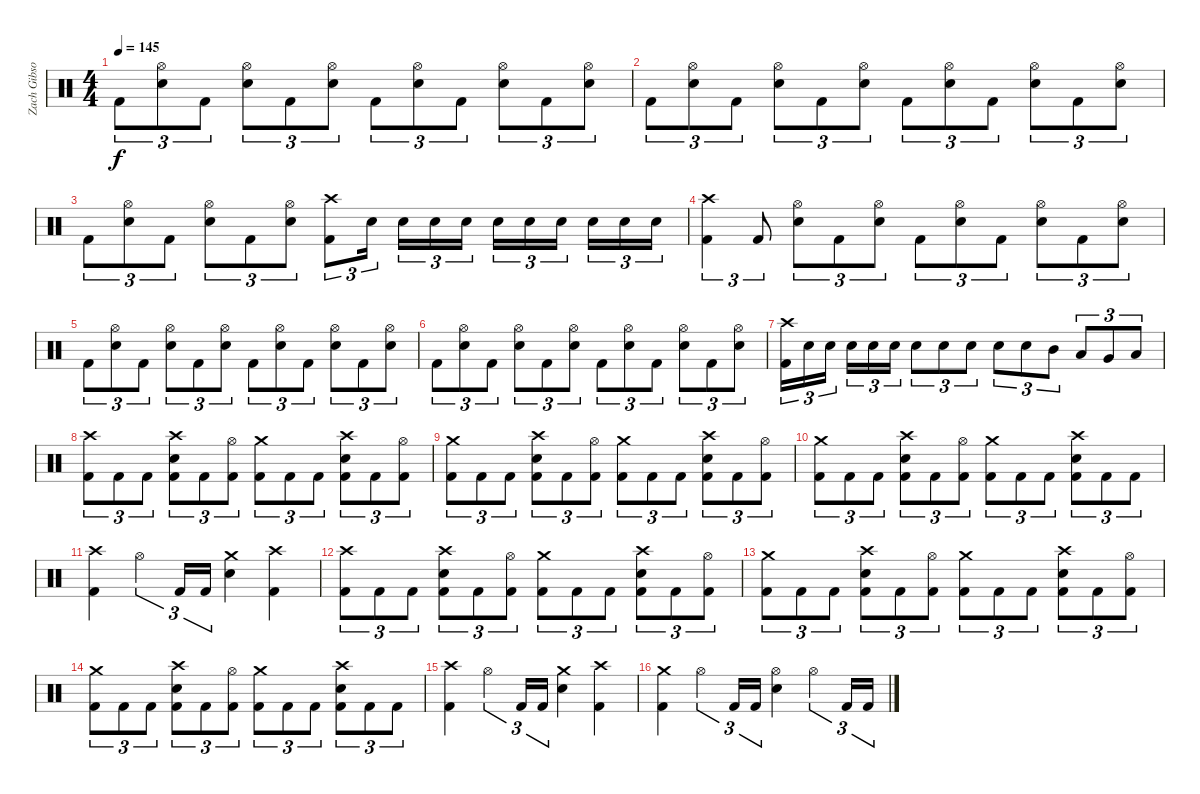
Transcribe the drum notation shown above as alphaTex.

\track ("Zach Gibson (Drums)" "Zach Gibso") {instrument percussion}
\staff {score}
\articulation defaults
\ts (4 4)
\tempo 145
\clef neutral
\ks c "Kick (hit) 2".8{tu (3 2) dy f}
("Hi-Hat (open)" "Snare (hit) 2").8{tu (3 2)} "Kick (hit) 2".8{tu (3 2)} ("Hi-Hat (open)" "Snare (hit) 2").8{tu (3 2)} "Kick (hit) 2".8{tu (3 2)} ("Hi-Hat (open)" "Snare (hit) 2").8{tu (3 2)} "Kick (hit) 2".8{tu (3 2)} ("Hi-Hat (open)" "Snare (hit) 2").8{tu (3 2)} "Kick (hit) 2".8{tu (3 2)} ("Hi-Hat (open)" "Snare (hit) 2").8{tu (3 2)} "Kick (hit) 2".8{tu (3 2)} ("Hi-Hat (open)" "Snare (hit) 2").8{tu (3 2)} |
"Kick (hit) 2".8{tu (3 2)} ("Hi-Hat (open)" "Snare (hit) 2").8{tu (3 2)} "Kick (hit) 2".8{tu (3 2)} ("Hi-Hat (open)" "Snare (hit) 2").8{tu (3 2)} "Kick (hit) 2".8{tu (3 2)} ("Hi-Hat (open)" "Snare (hit) 2").8{tu (3 2)} "Kick (hit) 2".8{tu (3 2)} ("Hi-Hat (open)" "Snare (hit) 2").8{tu (3 2)} "Kick (hit) 2".8{tu (3 2)} ("Hi-Hat (open)" "Snare (hit) 2").8{tu (3 2)} "Kick (hit) 2".8{tu (3 2)} ("Hi-Hat (open)" "Snare (hit) 2").8{tu (3 2)} |
"Kick (hit) 2".8{tu (3 2)} ("Hi-Hat (open)" "Snare (hit) 2").8{tu (3 2)} "Kick (hit) 2".8{tu (3 2)} ("Hi-Hat (open)" "Snare (hit) 2").8{tu (3 2)} "Kick (hit) 2".8{tu (3 2)} ("Hi-Hat (open)" "Snare (hit) 2").8{tu (3 2)} ("Crash high (hit)" "Kick (hit) 2").8{tu (3 2)} "Snare (hit) 2".16{tu (3 2)} "Snare (hit) 2".16{tu (3 2)} "Snare (hit) 2".16{tu (3 2)} "Snare (hit) 2".16{tu (3 2)} "Snare (hit) 2".16{tu (3 2)} "Snare (hit) 2".16{tu (3 2)} "Snare (hit) 2".16{tu (3 2)} "Snare (hit) 2".16{tu (3 2)} "Snare (hit) 2".16{tu (3 2)} "Snare (hit) 2".16{tu (3 2)} |
("Crash high (hit)" "Kick (hit) 2").4{tu (3 2)} "Kick (hit) 2".8{tu (3 2)} ("Hi-Hat (open)" "Snare (hit) 2").8{tu (3 2)} "Kick (hit) 2".8{tu (3 2)} ("Hi-Hat (open)" "Snare (hit) 2").8{tu (3 2)} "Kick (hit) 2".8{tu (3 2)} ("Hi-Hat (open)" "Snare (hit) 2").8{tu (3 2)} "Kick (hit) 2".8{tu (3 2)} ("Hi-Hat (open)" "Snare (hit) 2").8{tu (3 2)} "Kick (hit) 2".8{tu (3 2)} ("Hi-Hat (open)" "Snare (hit) 2").8{tu (3 2)} |
"Kick (hit) 2".8{tu (3 2)} ("Hi-Hat (open)" "Snare (hit) 2").8{tu (3 2)} "Kick (hit) 2".8{tu (3 2)} ("Hi-Hat (open)" "Snare (hit) 2").8{tu (3 2)} "Kick (hit) 2".8{tu (3 2)} ("Hi-Hat (open)" "Snare (hit) 2").8{tu (3 2)} "Kick (hit) 2".8{tu (3 2)} ("Hi-Hat (open)" "Snare (hit) 2").8{tu (3 2)} "Kick (hit) 2".8{tu (3 2)} ("Hi-Hat (open)" "Snare (hit) 2").8{tu (3 2)} "Kick (hit) 2".8{tu (3 2)} ("Hi-Hat (open)" "Snare (hit) 2").8{tu (3 2)} |
"Kick (hit) 2".8{tu (3 2)} ("Hi-Hat (open)" "Snare (hit) 2").8{tu (3 2)} "Kick (hit) 2".8{tu (3 2)} ("Hi-Hat (open)" "Snare (hit) 2").8{tu (3 2)} "Kick (hit) 2".8{tu (3 2)} ("Hi-Hat (open)" "Snare (hit) 2").8{tu (3 2)} "Kick (hit) 2".8{tu (3 2)} ("Hi-Hat (open)" "Snare (hit) 2").8{tu (3 2)} "Kick (hit) 2".8{tu (3 2)} ("Hi-Hat (open)" "Snare (hit) 2").8{tu (3 2)} "Kick (hit) 2".8{tu (3 2)} ("Hi-Hat (open)" "Snare (hit) 2").8{tu (3 2)} |
("Crash high (hit)" "Kick (hit) 2").16{tu (3 2)} "Snare (hit) 2".16{tu (3 2)} "Snare (hit) 2".16{tu (3 2)} "Snare (hit) 2".16{tu (3 2)} "Snare (hit) 2".16{tu (3 2)} "Snare (hit) 2".16{tu (3 2)} "Snare (hit) 2".8{tu (3 2)} "Snare (hit) 2".8{tu (3 2)} "Snare (hit) 2".8{tu (3 2)} "Snare (hit) 2".8{tu (3 2)} "Snare (hit) 2".8{tu (3 2)} "Mid Tom (hit)".8{tu (3 2)} "Low Tom (hit)".8{tu (3 2)} "Very Low Tom (hit)".8{tu (3 2)} "Low Floor Tom (hit)".8{tu (3 2)} |
("Crash high (hit)" "Kick (hit) 2").8{tu (3 2)} "Kick (hit) 2".8{tu (3 2)} "Kick (hit) 2".8{tu (3 2)} ("Crash high (hit)" "Snare (hit) 2" "Kick (hit) 2").8{tu (3 2)} "Kick (hit) 2".8{tu (3 2)} ("Hi-Hat (open)" "Kick (hit) 2").8{tu (3 2)} ("Crash medium (hit)" "Kick (hit) 2").8{tu (3 2)} "Kick (hit) 2".8{tu (3 2)} "Kick (hit) 2".8{tu (3 2)} ("Crash high (hit)" "Snare (hit) 2" "Kick (hit) 2").8{tu (3 2)} "Kick (hit) 2".8{tu (3 2)} ("Hi-Hat (open)" "Kick (hit) 2").8{tu (3 2)} |
("Crash medium (hit)" "Kick (hit) 2").8{tu (3 2)} "Kick (hit) 2".8{tu (3 2)} "Kick (hit) 2".8{tu (3 2)} ("Crash high (hit)" "Snare (hit) 2" "Kick (hit) 2").8{tu (3 2)} "Kick (hit) 2".8{tu (3 2)} ("Hi-Hat (open)" "Kick (hit) 2").8{tu (3 2)} ("Crash medium (hit)" "Kick (hit) 2").8{tu (3 2)} "Kick (hit) 2".8{tu (3 2)} "Kick (hit) 2".8{tu (3 2)} ("Crash high (hit)" "Snare (hit) 2" "Kick (hit) 2").8{tu (3 2)} "Kick (hit) 2".8{tu (3 2)} ("Hi-Hat (open)" "Kick (hit) 2").8{tu (3 2)} |
("Crash medium (hit)" "Kick (hit) 2").8{tu (3 2)} "Kick (hit) 2".8{tu (3 2)} "Kick (hit) 2".8{tu (3 2)} ("Crash high (hit)" "Snare (hit) 2" "Kick (hit) 2").8{tu (3 2)} "Kick (hit) 2".8{tu (3 2)} ("Hi-Hat (open)" "Kick (hit) 2").8{tu (3 2)} ("Crash medium (hit)" "Kick (hit) 2").8{tu (3 2)} "Kick (hit) 2".8{tu (3 2)} "Kick (hit) 2".8{tu (3 2)} ("Crash high (hit)" "Snare (hit) 2" "Kick (hit) 2").8{tu (3 2)} "Kick (hit) 2".8{tu (3 2)} "Kick (hit) 2".8{tu (3 2)} |
("Crash high (hit)" "Kick (hit) 2").4 "Hi-Hat (open)".4{tu (3 2)} "Kick (hit) 2".16{tu (3 2)} "Kick (hit) 2".16{tu (3 2)} ("Crash medium (hit)" "Snare (hit) 2").4 ("Crash high (hit)" "Kick (hit) 2").4 |
("Crash high (hit)" "Kick (hit) 2").8{tu (3 2)} "Kick (hit) 2".8{tu (3 2)} "Kick (hit) 2".8{tu (3 2)} ("Crash high (hit)" "Snare (hit) 2" "Kick (hit) 2").8{tu (3 2)} "Kick (hit) 2".8{tu (3 2)} ("Hi-Hat (open)" "Kick (hit) 2").8{tu (3 2)} ("Crash medium (hit)" "Kick (hit) 2").8{tu (3 2)} "Kick (hit) 2".8{tu (3 2)} "Kick (hit) 2".8{tu (3 2)} ("Crash high (hit)" "Snare (hit) 2" "Kick (hit) 2").8{tu (3 2)} "Kick (hit) 2".8{tu (3 2)} ("Hi-Hat (open)" "Kick (hit) 2").8{tu (3 2)} |
("Crash medium (hit)" "Kick (hit) 2").8{tu (3 2)} "Kick (hit) 2".8{tu (3 2)} "Kick (hit) 2".8{tu (3 2)} ("Crash high (hit)" "Snare (hit) 2" "Kick (hit) 2").8{tu (3 2)} "Kick (hit) 2".8{tu (3 2)} ("Hi-Hat (open)" "Kick (hit) 2").8{tu (3 2)} ("Crash medium (hit)" "Kick (hit) 2").8{tu (3 2)} "Kick (hit) 2".8{tu (3 2)} "Kick (hit) 2".8{tu (3 2)} ("Crash high (hit)" "Snare (hit) 2" "Kick (hit) 2").8{tu (3 2)} "Kick (hit) 2".8{tu (3 2)} ("Hi-Hat (open)" "Kick (hit) 2").8{tu (3 2)} |
("Crash medium (hit)" "Kick (hit) 2").8{tu (3 2)} "Kick (hit) 2".8{tu (3 2)} "Kick (hit) 2".8{tu (3 2)} ("Crash high (hit)" "Snare (hit) 2" "Kick (hit) 2").8{tu (3 2)} "Kick (hit) 2".8{tu (3 2)} ("Hi-Hat (open)" "Kick (hit) 2").8{tu (3 2)} ("Crash medium (hit)" "Kick (hit) 2").8{tu (3 2)} "Kick (hit) 2".8{tu (3 2)} "Kick (hit) 2".8{tu (3 2)} ("Crash high (hit)" "Snare (hit) 2" "Kick (hit) 2").8{tu (3 2)} "Kick (hit) 2".8{tu (3 2)} "Kick (hit) 2".8{tu (3 2)} |
("Crash high (hit)" "Kick (hit) 2").4 "Hi-Hat (open)".4{tu (3 2)} "Kick (hit) 2".16{tu (3 2)} "Kick (hit) 2".16{tu (3 2)} ("Crash medium (hit)" "Snare (hit) 2").4 ("Crash high (hit)" "Kick (hit) 2").4 |
("Crash medium (hit)" "Kick (hit) 2").4 "Hi-Hat (open)".4{tu (3 2)} "Kick (hit) 2".16{tu (3 2)} "Kick (hit) 2".16{tu (3 2)} ("Hi-Hat (open)" "Snare (hit) 2").4 "Hi-Hat (open)".4{tu (3 2)} "Kick (hit) 2".16{tu (3 2)} "Kick (hit) 2".16{tu (3 2)}
